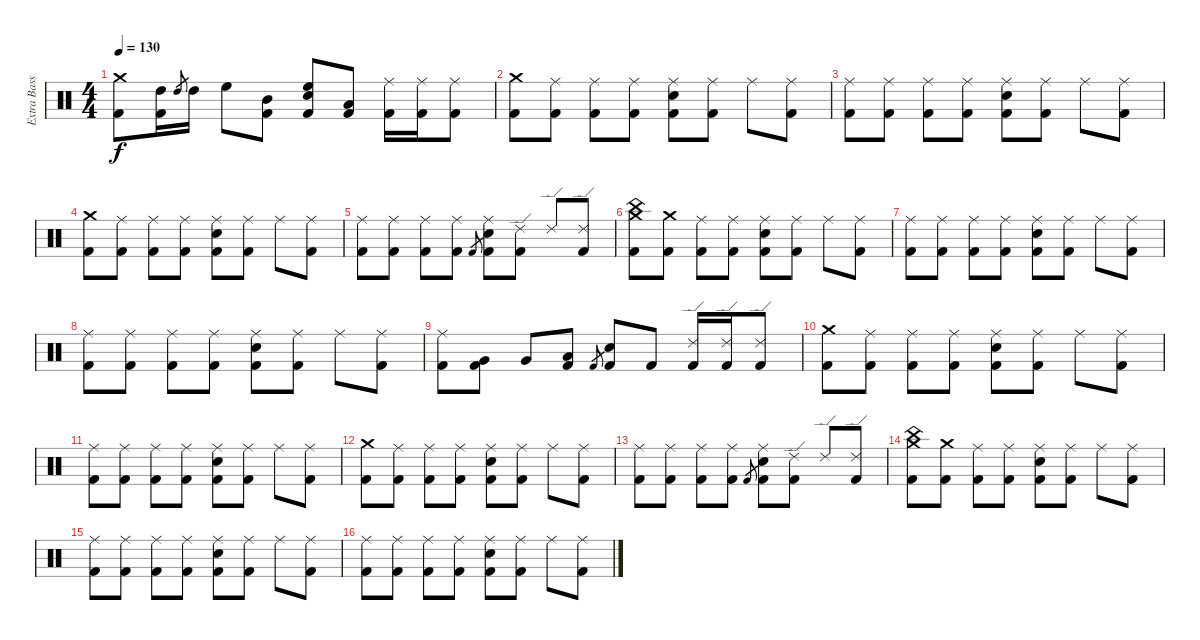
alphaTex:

\track ("Extra BassDrum" "Extra Bass") {instrument percussion}
\staff {score}
\articulation defaults
\ts (4 4)
\tempo 130
\clef neutral
\ks c
("Crash medium (hit)" "Kick (hit) 2").8{dy f} ("High Tom (hit)" "Kick (hit) 2").16 "High Tom (hit)".8{gr} "High Tom (hit)".16 "High Floor Tom (hit)".8 ("Mid Tom (hit)" "Kick (hit) 2").8 ("High Floor Tom (hit)" "Snare (hit) 2" "Kick (hit) 2").8 ("Low Tom (hit)" "Kick (hit) 2").8 ("Ride (middle)" "Kick (hit) 2").16 ("Ride (middle)" "Kick (hit) 2").16 ("Ride (middle)" "Kick (hit) 2").8 |
("Crash medium (hit)" "Kick (hit) 2").8 ("Ride (middle)" "Kick (hit) 2").8 ("Ride (middle)" "Kick (hit) 2").8 ("Ride (middle)" "Kick (hit) 2").8 ("Ride (middle)" "Snare (hit) 2" "Kick (hit) 2").8 ("Ride (middle)" "Kick (hit) 2").8 "Ride (middle)".8 ("Ride (middle)" "Kick (hit) 2").8 |
("Ride (middle)" "Kick (hit) 2").8 ("Ride (middle)" "Kick (hit) 2").8 ("Ride (middle)" "Kick (hit) 2").8 ("Ride (middle)" "Kick (hit) 2").8 ("Ride (middle)" "Snare (hit) 2" "Kick (hit) 2").8 ("Ride (middle)" "Kick (hit) 2").8 "Ride (middle)".8 ("Ride (middle)" "Kick (hit) 2").8 |
("Crash medium (hit)" "Kick (hit) 2").8 ("Ride (middle)" "Kick (hit) 2").8 ("Ride (middle)" "Kick (hit) 2").8 ("Ride (middle)" "Kick (hit) 2").8 ("Ride (middle)" "Snare (hit) 2" "Kick (hit) 2").8 ("Ride (middle)" "Kick (hit) 2").8 "Ride (middle)".8 ("Ride (middle)" "Kick (hit) 2").8 |
("Ride (middle)" "Kick (hit) 2").8 ("Ride (middle)" "Kick (hit) 2").8 ("Ride (middle)" "Kick (hit) 2").8 ("Ride (middle)" "Kick (hit) 2").8 "Kick (hit) 2".8{gr} ("Ride (middle)" "Snare (hit) 2" "Kick (hit) 2").8 ("Ride (edge) 2" "Kick (hit) 2").8 "Ride (edge) 2".8 ("Ride (edge) 2" "Kick (hit) 2").8 |
("China (hit)" "Crash medium (hit)" "Kick (hit) 2").8 ("Crash medium (hit)" "Kick (hit) 2").8 ("Ride (middle)" "Kick (hit) 2").8 ("Ride (middle)" "Kick (hit) 2").8 ("Ride (middle)" "Snare (hit) 2" "Kick (hit) 2").8 ("Ride (middle)" "Kick (hit) 2").8 "Ride (middle)".8 ("Ride (middle)" "Kick (hit) 2").8 |
("Ride (middle)" "Kick (hit) 2").8 ("Ride (middle)" "Kick (hit) 2").8 ("Ride (middle)" "Kick (hit) 2").8 ("Ride (middle)" "Kick (hit) 2").8 ("Ride (middle)" "Snare (hit) 2" "Kick (hit) 2").8 ("Ride (middle)" "Kick (hit) 2").8 "Ride (middle)".8 ("Ride (middle)" "Kick (hit) 2").8 |
("Ride (middle)" "Kick (hit) 2").8 ("Ride (middle)" "Kick (hit) 2").8 ("Ride (middle)" "Kick (hit) 2").8 ("Ride (middle)" "Kick (hit) 2").8 ("Ride (middle)" "Snare (hit) 2" "Kick (hit) 2").8 ("Ride (middle)" "Kick (hit) 2").8 "Ride (middle)".8 ("Ride (middle)" "Kick (hit) 2").8 |
("Ride (middle)" "Kick (hit) 2").8 ("Very Low Tom (hit)" "Kick (hit) 2").8 "Very Low Tom (hit)".8 ("Low Floor Tom (hit)" "Kick (hit) 2").8 "Kick (hit) 2".8{gr} ("Snare (hit) 2" "Kick (hit) 2").8 "Kick (hit) 2".8 ("Ride (edge) 2" "Kick (hit) 2").16 ("Ride (edge) 2" "Kick (hit) 2").16 ("Ride (edge) 2" "Kick (hit) 2").8 |
("Crash medium (hit)" "Kick (hit) 2").8 ("Ride (middle)" "Kick (hit) 2").8 ("Ride (middle)" "Kick (hit) 2").8 ("Ride (middle)" "Kick (hit) 2").8 ("Ride (middle)" "Snare (hit) 2" "Kick (hit) 2").8 ("Ride (middle)" "Kick (hit) 2").8 "Ride (middle)".8 ("Ride (middle)" "Kick (hit) 2").8 |
("Ride (middle)" "Kick (hit) 2").8 ("Ride (middle)" "Kick (hit) 2").8 ("Ride (middle)" "Kick (hit) 2").8 ("Ride (middle)" "Kick (hit) 2").8 ("Ride (middle)" "Snare (hit) 2" "Kick (hit) 2").8 ("Ride (middle)" "Kick (hit) 2").8 "Ride (middle)".8 ("Ride (middle)" "Kick (hit) 2").8 |
("Crash medium (hit)" "Kick (hit) 2").8 ("Ride (middle)" "Kick (hit) 2").8 ("Ride (middle)" "Kick (hit) 2").8 ("Ride (middle)" "Kick (hit) 2").8 ("Ride (middle)" "Snare (hit) 2" "Kick (hit) 2").8 ("Ride (middle)" "Kick (hit) 2").8 "Ride (middle)".8 ("Ride (middle)" "Kick (hit) 2").8 |
("Ride (middle)" "Kick (hit) 2").8 ("Ride (middle)" "Kick (hit) 2").8 ("Ride (middle)" "Kick (hit) 2").8 ("Ride (middle)" "Kick (hit) 2").8 "Kick (hit) 2".8{gr} ("Ride (middle)" "Snare (hit) 2" "Kick (hit) 2").8 ("Ride (edge) 2" "Kick (hit) 2").8 "Ride (edge) 2".8 ("Ride (edge) 2" "Kick (hit) 2").8 |
("China (hit)" "Crash medium (hit)" "Kick (hit) 2").8 ("Crash medium (hit)" "Kick (hit) 2").8 ("Ride (middle)" "Kick (hit) 2").8 ("Ride (middle)" "Kick (hit) 2").8 ("Ride (middle)" "Snare (hit) 2" "Kick (hit) 2").8 ("Ride (middle)" "Kick (hit) 2").8 "Ride (middle)".8 ("Ride (middle)" "Kick (hit) 2").8 |
("Ride (middle)" "Kick (hit) 2").8 ("Ride (middle)" "Kick (hit) 2").8 ("Ride (middle)" "Kick (hit) 2").8 ("Ride (middle)" "Kick (hit) 2").8 ("Ride (middle)" "Snare (hit) 2" "Kick (hit) 2").8 ("Ride (middle)" "Kick (hit) 2").8 "Ride (middle)".8 ("Ride (middle)" "Kick (hit) 2").8 |
("Ride (middle)" "Kick (hit) 2").8 ("Ride (middle)" "Kick (hit) 2").8 ("Ride (middle)" "Kick (hit) 2").8 ("Ride (middle)" "Kick (hit) 2").8 ("Ride (middle)" "Snare (hit) 2" "Kick (hit) 2").8 ("Ride (middle)" "Kick (hit) 2").8 "Ride (middle)".8 ("Ride (middle)" "Kick (hit) 2").8
